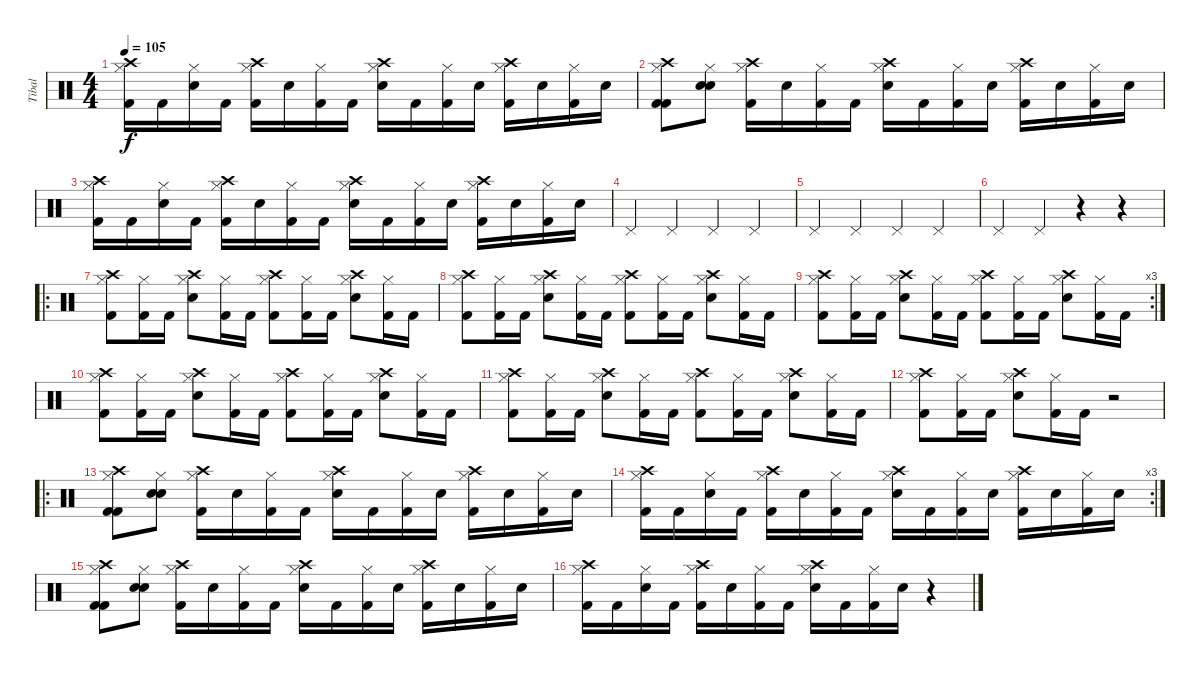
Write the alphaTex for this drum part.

\track ("Tibal" "Tibal") {instrument percussion}
\staff {score}
\articulation defaults
\ts (4 4)
\tempo 105
\clef neutral
\ks c
("Hi-Hat (closed)" "Crash high (hit)" "Kick (hit) 2").16{dy f} "Kick (hit) 2".16 ("Hi-Hat (closed)" "Snare (hit) 2").16 "Kick (hit) 2".16 ("Hi-Hat (closed)" "Crash high (hit)" "Kick (hit) 2").16 "Snare (hit) 2".16 ("Hi-Hat (closed)" "Kick (hit) 2").16 "Kick (hit) 2".16 ("Hi-Hat (closed)" "Crash high (hit)" "Snare (hit) 2").16 "Kick (hit) 2".16 ("Hi-Hat (closed)" "Kick (hit) 2").16 "Snare (hit) 2".16 ("Hi-Hat (closed)" "Crash high (hit)" "Kick (hit) 2").16 "Snare (hit) 2".16 ("Hi-Hat (closed)" "Kick (hit) 2").16 "Snare (hit) 2".16 |
("Hi-Hat (closed)" "Crash high (hit)" "Kick (hit) 2" "Kick (hit) 2").8 ("Hi-Hat (closed)" "Snare (hit) 2" "Snare (hit) 2").8 ("Hi-Hat (closed)" "Crash high (hit)" "Kick (hit) 2").16 "Snare (hit) 2".16 ("Hi-Hat (closed)" "Kick (hit) 2").16 "Kick (hit) 2".16 ("Hi-Hat (closed)" "Crash high (hit)" "Snare (hit) 2").16 "Kick (hit) 2".16 ("Hi-Hat (closed)" "Kick (hit) 2").16 "Snare (hit) 2".16 ("Hi-Hat (closed)" "Crash high (hit)" "Kick (hit) 2").16 "Snare (hit) 2".16 ("Hi-Hat (closed)" "Kick (hit) 2").16 "Snare (hit) 2".16 |
("Hi-Hat (closed)" "Crash high (hit)" "Kick (hit) 2").16 "Kick (hit) 2".16 ("Hi-Hat (closed)" "Snare (hit) 2").16 "Kick (hit) 2".16 ("Hi-Hat (closed)" "Crash high (hit)" "Kick (hit) 2").16 "Snare (hit) 2".16 ("Hi-Hat (closed)" "Kick (hit) 2").16 "Kick (hit) 2".16 ("Hi-Hat (closed)" "Crash high (hit)" "Snare (hit) 2").16 "Kick (hit) 2".16 ("Hi-Hat (closed)" "Kick (hit) 2").16 "Snare (hit) 2".16 ("Hi-Hat (closed)" "Crash high (hit)" "Kick (hit) 2").16 "Snare (hit) 2".16 ("Hi-Hat (closed)" "Kick (hit) 2").16 "Snare (hit) 2".16 |
"Pedal Hi-Hat (hit)".4 "Pedal Hi-Hat (hit)".4 "Pedal Hi-Hat (hit)".4 "Pedal Hi-Hat (hit)".4 |
"Pedal Hi-Hat (hit)".4 "Pedal Hi-Hat (hit)".4 "Pedal Hi-Hat (hit)".4 "Pedal Hi-Hat (hit)".4 |
"Pedal Hi-Hat (hit)".4 "Pedal Hi-Hat (hit)".4 r.4 r.4 |
\ro
("Crash high (hit)" "Hi-Hat (closed)" "Kick (hit) 2").8 ("Hi-Hat (closed)" "Kick (hit) 2").16 "Kick (hit) 2".16 ("Crash high (hit)" "Hi-Hat (closed)" "Snare (hit) 2").8 ("Hi-Hat (closed)" "Kick (hit) 2").16 "Kick (hit) 2".16 ("Crash high (hit)" "Hi-Hat (closed)" "Kick (hit) 2").8 ("Hi-Hat (closed)" "Kick (hit) 2").16 "Kick (hit) 2".16 ("Crash high (hit)" "Hi-Hat (closed)" "Snare (hit) 2").8 ("Hi-Hat (closed)" "Kick (hit) 2").16 "Kick (hit) 2".16 |
("Crash high (hit)" "Hi-Hat (closed)" "Kick (hit) 2").8 ("Hi-Hat (closed)" "Kick (hit) 2").16 "Kick (hit) 2".16 ("Crash high (hit)" "Hi-Hat (closed)" "Snare (hit) 2").8 ("Hi-Hat (closed)" "Kick (hit) 2").16 "Kick (hit) 2".16 ("Crash high (hit)" "Hi-Hat (closed)" "Kick (hit) 2").8 ("Hi-Hat (closed)" "Kick (hit) 2").16 "Kick (hit) 2".16 ("Crash high (hit)" "Hi-Hat (closed)" "Snare (hit) 2").8 ("Hi-Hat (closed)" "Kick (hit) 2").16 "Kick (hit) 2".16 |
\rc 3
("Crash high (hit)" "Hi-Hat (closed)" "Kick (hit) 2").8 ("Hi-Hat (closed)" "Kick (hit) 2").16 "Kick (hit) 2".16 ("Crash high (hit)" "Hi-Hat (closed)" "Snare (hit) 2").8 ("Hi-Hat (closed)" "Kick (hit) 2").16 "Kick (hit) 2".16 ("Crash high (hit)" "Hi-Hat (closed)" "Kick (hit) 2").8 ("Hi-Hat (closed)" "Kick (hit) 2").16 "Kick (hit) 2".16 ("Crash high (hit)" "Hi-Hat (closed)" "Snare (hit) 2").8 ("Hi-Hat (closed)" "Kick (hit) 2").16 "Kick (hit) 2".16 |
("Crash high (hit)" "Hi-Hat (closed)" "Kick (hit) 2").8 ("Hi-Hat (closed)" "Kick (hit) 2").16 "Kick (hit) 2".16 ("Crash high (hit)" "Hi-Hat (closed)" "Snare (hit) 2").8 ("Hi-Hat (closed)" "Kick (hit) 2").16 "Kick (hit) 2".16 ("Crash high (hit)" "Hi-Hat (closed)" "Kick (hit) 2").8 ("Hi-Hat (closed)" "Kick (hit) 2").16 "Kick (hit) 2".16 ("Crash high (hit)" "Hi-Hat (closed)" "Snare (hit) 2").8 ("Hi-Hat (closed)" "Kick (hit) 2").16 "Kick (hit) 2".16 |
("Crash high (hit)" "Hi-Hat (closed)" "Kick (hit) 2").8 ("Hi-Hat (closed)" "Kick (hit) 2").16 "Kick (hit) 2".16 ("Crash high (hit)" "Hi-Hat (closed)" "Snare (hit) 2").8 ("Hi-Hat (closed)" "Kick (hit) 2").16 "Kick (hit) 2".16 ("Crash high (hit)" "Hi-Hat (closed)" "Kick (hit) 2").8 ("Hi-Hat (closed)" "Kick (hit) 2").16 "Kick (hit) 2".16 ("Crash high (hit)" "Hi-Hat (closed)" "Snare (hit) 2").8 ("Hi-Hat (closed)" "Kick (hit) 2").16 "Kick (hit) 2".16 |
("Crash high (hit)" "Hi-Hat (closed)" "Kick (hit) 2").8 ("Hi-Hat (closed)" "Kick (hit) 2").16 "Kick (hit) 2".16 ("Crash high (hit)" "Hi-Hat (closed)" "Snare (hit) 2").8 ("Hi-Hat (closed)" "Kick (hit) 2").16 "Kick (hit) 2".16 r.2 |
\ro
("Hi-Hat (closed)" "Crash high (hit)" "Kick (hit) 2" "Kick (hit) 2").8 ("Hi-Hat (closed)" "Snare (hit) 2" "Snare (hit) 2").8 ("Hi-Hat (closed)" "Crash high (hit)" "Kick (hit) 2").16 "Snare (hit) 2".16 ("Hi-Hat (closed)" "Kick (hit) 2").16 "Kick (hit) 2".16 ("Hi-Hat (closed)" "Crash high (hit)" "Snare (hit) 2").16 "Kick (hit) 2".16 ("Hi-Hat (closed)" "Kick (hit) 2").16 "Snare (hit) 2".16 ("Hi-Hat (closed)" "Crash high (hit)" "Kick (hit) 2").16 "Snare (hit) 2".16 ("Hi-Hat (closed)" "Kick (hit) 2").16 "Snare (hit) 2".16 |
\rc 3
("Hi-Hat (closed)" "Crash high (hit)" "Kick (hit) 2").16 "Kick (hit) 2".16 ("Hi-Hat (closed)" "Snare (hit) 2").16 "Kick (hit) 2".16 ("Hi-Hat (closed)" "Crash high (hit)" "Kick (hit) 2").16 "Snare (hit) 2".16 ("Hi-Hat (closed)" "Kick (hit) 2").16 "Kick (hit) 2".16 ("Hi-Hat (closed)" "Crash high (hit)" "Snare (hit) 2").16 "Kick (hit) 2".16 ("Hi-Hat (closed)" "Kick (hit) 2").16 "Snare (hit) 2".16 ("Hi-Hat (closed)" "Crash high (hit)" "Kick (hit) 2").16 "Snare (hit) 2".16 ("Hi-Hat (closed)" "Kick (hit) 2").16 "Snare (hit) 2".16 |
("Hi-Hat (closed)" "Crash high (hit)" "Kick (hit) 2" "Kick (hit) 2").8 ("Hi-Hat (closed)" "Snare (hit) 2" "Snare (hit) 2").8 ("Hi-Hat (closed)" "Crash high (hit)" "Kick (hit) 2").16 "Snare (hit) 2".16 ("Hi-Hat (closed)" "Kick (hit) 2").16 "Kick (hit) 2".16 ("Hi-Hat (closed)" "Crash high (hit)" "Snare (hit) 2").16 "Kick (hit) 2".16 ("Hi-Hat (closed)" "Kick (hit) 2").16 "Snare (hit) 2".16 ("Hi-Hat (closed)" "Crash high (hit)" "Kick (hit) 2").16 "Snare (hit) 2".16 ("Hi-Hat (closed)" "Kick (hit) 2").16 "Snare (hit) 2".16 |
("Hi-Hat (closed)" "Crash high (hit)" "Kick (hit) 2").16 "Kick (hit) 2".16 ("Hi-Hat (closed)" "Snare (hit) 2").16 "Kick (hit) 2".16 ("Hi-Hat (closed)" "Crash high (hit)" "Kick (hit) 2").16 "Snare (hit) 2".16 ("Hi-Hat (closed)" "Kick (hit) 2").16 "Kick (hit) 2".16 ("Hi-Hat (closed)" "Crash high (hit)" "Snare (hit) 2").16 "Kick (hit) 2".16 ("Hi-Hat (closed)" "Kick (hit) 2").16 "Snare (hit) 2".16 r.4
